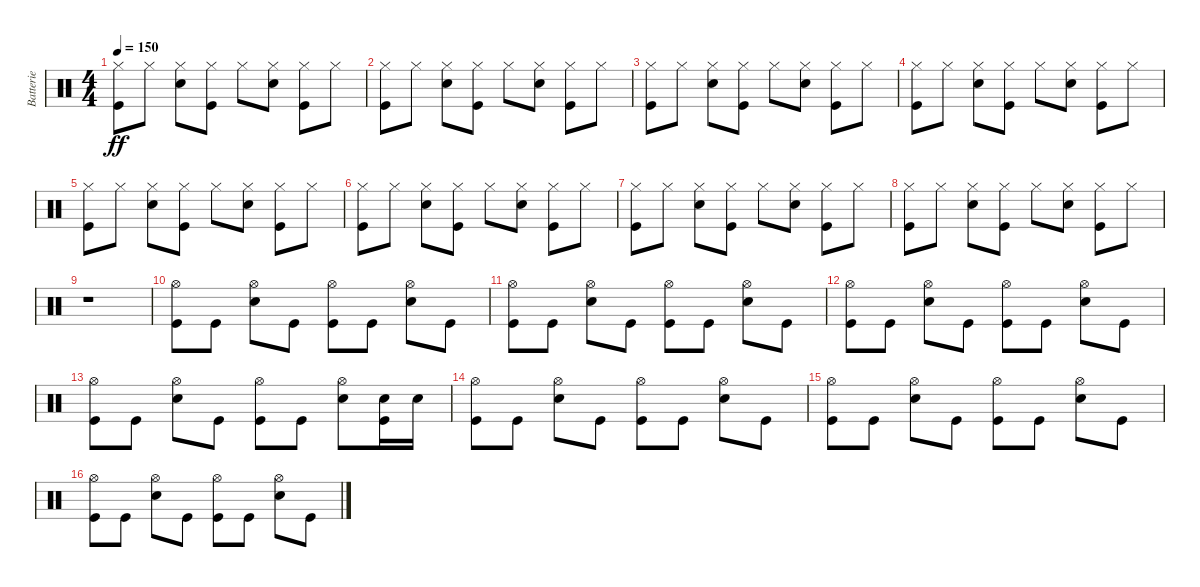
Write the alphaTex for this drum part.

\track ("Batterie" "Batterie") {instrument percussion}
\staff {score}
\articulation defaults
\ts (4 4)
\tempo 150
\clef neutral
\ks c
("Kick (hit)" "Hi-Hat (closed)").8{dy ff} "Hi-Hat (closed)".8 ("Electric Snare (hit)" "Hi-Hat (closed)").8 ("Kick (hit)" "Hi-Hat (closed)").8 "Hi-Hat (closed)".8 ("Electric Snare (hit)" "Hi-Hat (closed)").8 ("Kick (hit)" "Hi-Hat (closed)").8 "Hi-Hat (closed)".8 |
("Kick (hit)" "Hi-Hat (closed)").8 "Hi-Hat (closed)".8 ("Electric Snare (hit)" "Hi-Hat (closed)").8 ("Kick (hit)" "Hi-Hat (closed)").8 "Hi-Hat (closed)".8 ("Electric Snare (hit)" "Hi-Hat (closed)").8 ("Kick (hit)" "Hi-Hat (closed)").8 "Hi-Hat (closed)".8 |
("Kick (hit)" "Hi-Hat (closed)").8 "Hi-Hat (closed)".8 ("Electric Snare (hit)" "Hi-Hat (closed)").8 ("Kick (hit)" "Hi-Hat (closed)").8 "Hi-Hat (closed)".8 ("Electric Snare (hit)" "Hi-Hat (closed)").8 ("Kick (hit)" "Hi-Hat (closed)").8 "Hi-Hat (closed)".8 |
("Kick (hit)" "Hi-Hat (closed)").8 "Hi-Hat (closed)".8 ("Electric Snare (hit)" "Hi-Hat (closed)").8 ("Kick (hit)" "Hi-Hat (closed)").8 "Hi-Hat (closed)".8 ("Electric Snare (hit)" "Hi-Hat (closed)").8 ("Kick (hit)" "Hi-Hat (closed)").8 "Hi-Hat (closed)".8 |
("Kick (hit)" "Hi-Hat (closed)").8 "Hi-Hat (closed)".8 ("Electric Snare (hit)" "Hi-Hat (closed)").8 ("Kick (hit)" "Hi-Hat (closed)").8 "Hi-Hat (closed)".8 ("Electric Snare (hit)" "Hi-Hat (closed)").8 ("Kick (hit)" "Hi-Hat (closed)").8 "Hi-Hat (closed)".8 |
("Kick (hit)" "Hi-Hat (closed)").8 "Hi-Hat (closed)".8 ("Electric Snare (hit)" "Hi-Hat (closed)").8 ("Kick (hit)" "Hi-Hat (closed)").8 "Hi-Hat (closed)".8 ("Electric Snare (hit)" "Hi-Hat (closed)").8 ("Kick (hit)" "Hi-Hat (closed)").8 "Hi-Hat (closed)".8 |
("Kick (hit)" "Hi-Hat (closed)").8 "Hi-Hat (closed)".8 ("Electric Snare (hit)" "Hi-Hat (closed)").8 ("Kick (hit)" "Hi-Hat (closed)").8 "Hi-Hat (closed)".8 ("Electric Snare (hit)" "Hi-Hat (closed)").8 ("Kick (hit)" "Hi-Hat (closed)").8 "Hi-Hat (closed)".8 |
("Kick (hit)" "Hi-Hat (closed)").8 "Hi-Hat (closed)".8 ("Electric Snare (hit)" "Hi-Hat (closed)").8 ("Kick (hit)" "Hi-Hat (closed)").8 "Hi-Hat (closed)".8 ("Electric Snare (hit)" "Hi-Hat (closed)").8 ("Kick (hit)" "Hi-Hat (closed)").8 "Hi-Hat (closed)".8 |
r.1 |
("Kick (hit)" "Hi-Hat (open)").8 "Kick (hit)".8 ("Electric Snare (hit)" "Hi-Hat (open)").8 "Kick (hit)".8 ("Kick (hit)" "Hi-Hat (open)").8 "Kick (hit)".8 ("Electric Snare (hit)" "Hi-Hat (open)").8 "Kick (hit)".8 |
("Kick (hit)" "Hi-Hat (open)").8 "Kick (hit)".8 ("Electric Snare (hit)" "Hi-Hat (open)").8 "Kick (hit)".8 ("Kick (hit)" "Hi-Hat (open)").8 "Kick (hit)".8 ("Electric Snare (hit)" "Hi-Hat (open)").8 "Kick (hit)".8 |
("Kick (hit)" "Hi-Hat (open)").8 "Kick (hit)".8 ("Electric Snare (hit)" "Hi-Hat (open)").8 "Kick (hit)".8 ("Kick (hit)" "Hi-Hat (open)").8 "Kick (hit)".8 ("Electric Snare (hit)" "Hi-Hat (open)").8 "Kick (hit)".8 |
("Kick (hit)" "Hi-Hat (open)").8 "Kick (hit)".8 ("Electric Snare (hit)" "Hi-Hat (open)").8 "Kick (hit)".8 ("Kick (hit)" "Hi-Hat (open)").8 "Kick (hit)".8 ("Electric Snare (hit)" "Hi-Hat (open)").8 ("Kick (hit)" "Electric Snare (hit)").16 "Electric Snare (hit)".16 |
("Kick (hit)" "Hi-Hat (open)").8 "Kick (hit)".8 ("Electric Snare (hit)" "Hi-Hat (open)").8 "Kick (hit)".8 ("Kick (hit)" "Hi-Hat (open)").8 "Kick (hit)".8 ("Electric Snare (hit)" "Hi-Hat (open)").8 "Kick (hit)".8 |
("Kick (hit)" "Hi-Hat (open)").8 "Kick (hit)".8 ("Electric Snare (hit)" "Hi-Hat (open)").8 "Kick (hit)".8 ("Kick (hit)" "Hi-Hat (open)").8 "Kick (hit)".8 ("Electric Snare (hit)" "Hi-Hat (open)").8 "Kick (hit)".8 |
("Kick (hit)" "Hi-Hat (open)").8 "Kick (hit)".8 ("Electric Snare (hit)" "Hi-Hat (open)").8 "Kick (hit)".8 ("Kick (hit)" "Hi-Hat (open)").8 "Kick (hit)".8 ("Electric Snare (hit)" "Hi-Hat (open)").8 "Kick (hit)".8
